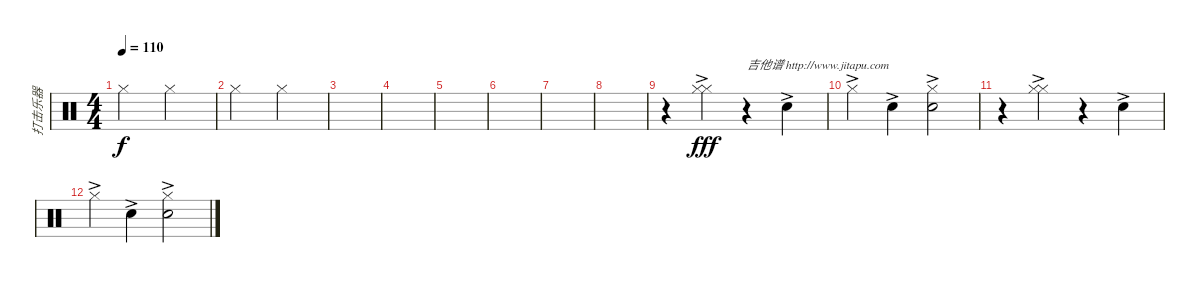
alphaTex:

\track ("打击乐器" "打击乐器") {instrument percussion}
\staff {score}
\articulation defaults
\ts (4 4)
\tempo 110
\clef neutral
\ks c "Hi-Hat (closed)".2{dy f} "Hi-Hat (closed)".2
|
"Hi-Hat (closed)".2 "Hi-Hat (closed)".2 |
|
|
|
|
|
|
r.4 ("Hi-Hat (closed)"{ac} "Hi-Hat (closed)"{ac}).4{dy fff} r.4{txt "吉他谱 http://www.jitapu.com"} "Hand Clap (hit)"{ac}.4 |
"Hi-Hat (closed)"{ac}.4 "Hand Clap (hit)"{ac}.4 ("Hand Clap (hit)"{ac} "Hi-Hat (closed)"{ac}).2 |
r.4 ("Hi-Hat (closed)"{ac} "Hi-Hat (closed)"{ac}).4 r.4 "Hand Clap (hit)"{ac}.4 |
"Hi-Hat (closed)"{ac}.4 "Hand Clap (hit)"{ac}.4 ("Hand Clap (hit)"{ac} "Hi-Hat (closed)"{ac}).2
